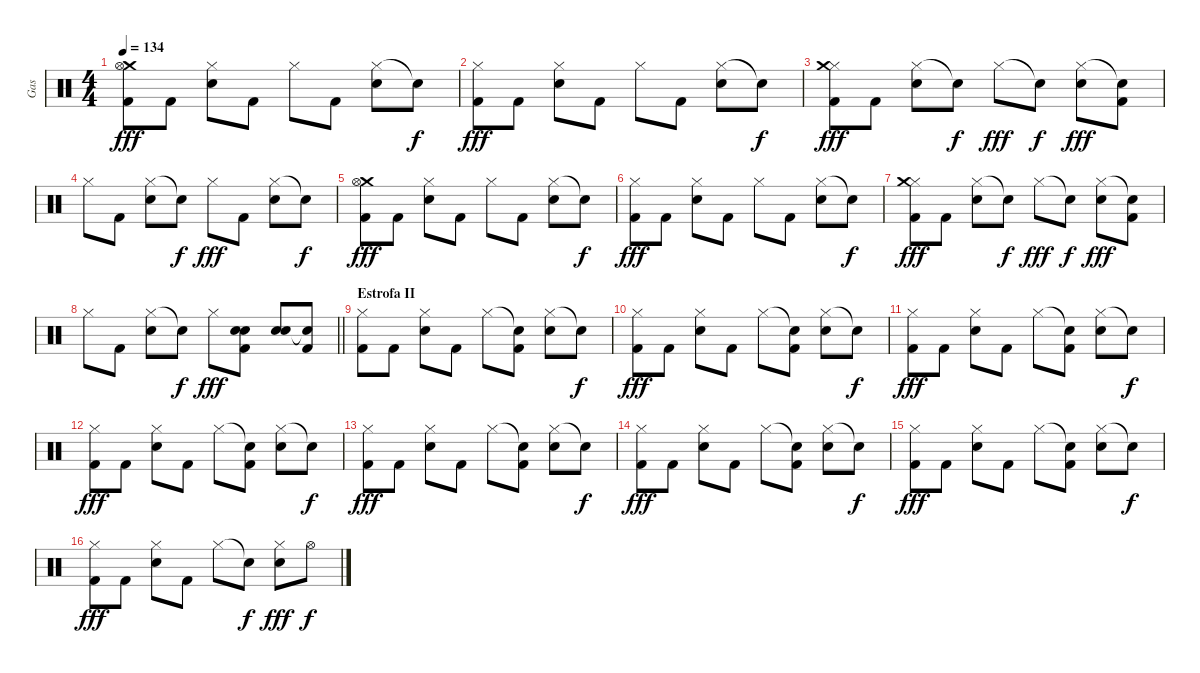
\track ("Gas" "Gas") {instrument percussion}
\staff {score}
\articulation defaults
\ts (4 4)
\tempo 134
\clef neutral
\ks c
("Crash medium (hit)" "Hi-Hat (open)" "Kick (hit) 2").8{dy fff} "Kick (hit) 2".8 ("Hi-Hat (closed)" "Snare (hit) 2").8 "Kick (hit) 2".8 "Hi-Hat (closed)".8 "Kick (hit) 2".8 ("Hi-Hat (closed)" "Snare (hit) 2").8 "Snare (hit)"{t}.8{dy f} |
("Hi-Hat (closed)" "Kick (hit) 2").8{dy fff} "Kick (hit) 2".8 ("Hi-Hat (closed)" "Snare (hit) 2").8 "Kick (hit) 2".8 "Hi-Hat (closed)".8 "Kick (hit) 2".8 ("Hi-Hat (closed)" "Snare (hit) 2").8 "Snare (hit)"{t}.8{dy f} |
("Hi-Hat (closed)" "Crash medium (hit)" "Kick (hit) 2").8{dy fff} "Kick (hit) 2".8 ("Hi-Hat (closed)" "Snare (hit) 2").8 "Snare (hit)"{t}.8{dy f} "Hi-Hat (closed)".8{dy fff} "Snare (hit)"{t}.8{dy f} ("Hi-Hat (closed)" "Snare (hit) 2").8{dy fff} ("Snare (hit)"{t} "Kick (hit) 2").8 |
"Hi-Hat (closed)".8 "Kick (hit) 2".8 ("Hi-Hat (closed)" "Snare (hit) 2").8 "Snare (hit)"{t}.8{dy f} "Hi-Hat (closed)".8{dy fff} "Kick (hit) 2".8 ("Hi-Hat (closed)" "Snare (hit) 2").8 "Snare (hit)"{t}.8{dy f} |
("Crash medium (hit)" "Hi-Hat (open)" "Kick (hit) 2").8{dy fff} "Kick (hit) 2".8 ("Hi-Hat (closed)" "Snare (hit) 2").8 "Kick (hit) 2".8 "Hi-Hat (closed)".8 "Kick (hit) 2".8 ("Hi-Hat (closed)" "Snare (hit) 2").8 "Snare (hit)"{t}.8{dy f} |
("Hi-Hat (closed)" "Kick (hit) 2").8{dy fff} "Kick (hit) 2".8 ("Hi-Hat (closed)" "Snare (hit) 2").8 "Kick (hit) 2".8 "Hi-Hat (closed)".8 "Kick (hit) 2".8 ("Hi-Hat (closed)" "Snare (hit) 2").8 "Snare (hit)"{t}.8{dy f} |
("Hi-Hat (closed)" "Crash medium (hit)" "Kick (hit) 2").8{dy fff} "Kick (hit) 2".8 ("Hi-Hat (closed)" "Snare (hit) 2").8 "Snare (hit)"{t}.8{dy f} "Hi-Hat (closed)".8{dy fff} "Snare (hit)"{t}.8{dy f} ("Hi-Hat (closed)" "Snare (hit) 2").8{dy fff} ("Snare (hit)"{t} "Kick (hit) 2").8 |
\barLineRight lightlight "Hi-Hat (closed)".8 "Kick (hit) 2".8
("Hi-Hat (closed)" "Snare (hit) 2").8 "Snare (hit)"{t}.8{dy f} "Hi-Hat (closed)".8{dy fff} ("Snare (hit) 2" "Snare (hit) 2" "Kick (hit) 2").8 ("Snare (hit) 2" "Snare (hit) 2").8 ("Snare (hit)"{t} "Kick (hit) 2").8 |
\section ("" "Estrofa II")
("Hi-Hat (closed)" "Kick (hit) 2").8 "Kick (hit) 2".8 ("Hi-Hat (closed)" "Snare (hit) 2").8 "Kick (hit) 2".8 "Hi-Hat (closed)".8 ("Snare (hit)"{t} "Kick (hit) 2").8 ("Hi-Hat (closed)" "Snare (hit) 2").8 "Snare (hit)"{t}.8{dy f} |
("Hi-Hat (closed)" "Kick (hit) 2").8{dy fff} "Kick (hit) 2".8 ("Hi-Hat (closed)" "Snare (hit) 2").8 "Kick (hit) 2".8 "Hi-Hat (closed)".8 ("Snare (hit)"{t} "Kick (hit) 2").8 ("Hi-Hat (closed)" "Snare (hit) 2").8 "Snare (hit)"{t}.8{dy f} |
("Hi-Hat (closed)" "Kick (hit) 2").8{dy fff} "Kick (hit) 2".8 ("Hi-Hat (closed)" "Snare (hit) 2").8 "Kick (hit) 2".8 "Hi-Hat (closed)".8 ("Snare (hit)"{t} "Kick (hit) 2").8 ("Hi-Hat (closed)" "Snare (hit) 2").8 "Snare (hit)"{t}.8{dy f} |
("Hi-Hat (closed)" "Kick (hit) 2").8{dy fff} "Kick (hit) 2".8 ("Hi-Hat (closed)" "Snare (hit) 2").8 "Kick (hit) 2".8 "Hi-Hat (closed)".8 ("Snare (hit)"{t} "Kick (hit) 2").8 ("Hi-Hat (closed)" "Snare (hit) 2").8 "Snare (hit)"{t}.8{dy f} |
("Hi-Hat (closed)" "Kick (hit) 2").8{dy fff} "Kick (hit) 2".8 ("Hi-Hat (closed)" "Snare (hit) 2").8 "Kick (hit) 2".8 "Hi-Hat (closed)".8 ("Snare (hit)"{t} "Kick (hit) 2").8 ("Hi-Hat (closed)" "Snare (hit) 2").8 "Snare (hit)"{t}.8{dy f} |
("Hi-Hat (closed)" "Kick (hit) 2").8{dy fff} "Kick (hit) 2".8 ("Hi-Hat (closed)" "Snare (hit) 2").8 "Kick (hit) 2".8 "Hi-Hat (closed)".8 ("Snare (hit)"{t} "Kick (hit) 2").8 ("Hi-Hat (closed)" "Snare (hit) 2").8 "Snare (hit)"{t}.8{dy f} |
("Hi-Hat (closed)" "Kick (hit) 2").8{dy fff} "Kick (hit) 2".8 ("Hi-Hat (closed)" "Snare (hit) 2").8 "Kick (hit) 2".8 "Hi-Hat (closed)".8 ("Snare (hit)"{t} "Kick (hit) 2").8 ("Hi-Hat (closed)" "Snare (hit) 2").8 "Snare (hit)"{t}.8{dy f} |
("Hi-Hat (closed)" "Kick (hit) 2").8{dy fff} "Kick (hit) 2".8 ("Hi-Hat (closed)" "Snare (hit) 2").8 "Kick (hit) 2".8 "Hi-Hat (closed)".8 "Snare (hit)"{t}.8{dy f} ("Hi-Hat (closed)" "Snare (hit) 2").8{dy fff} "Hi-Hat (open)".8{dy f}
